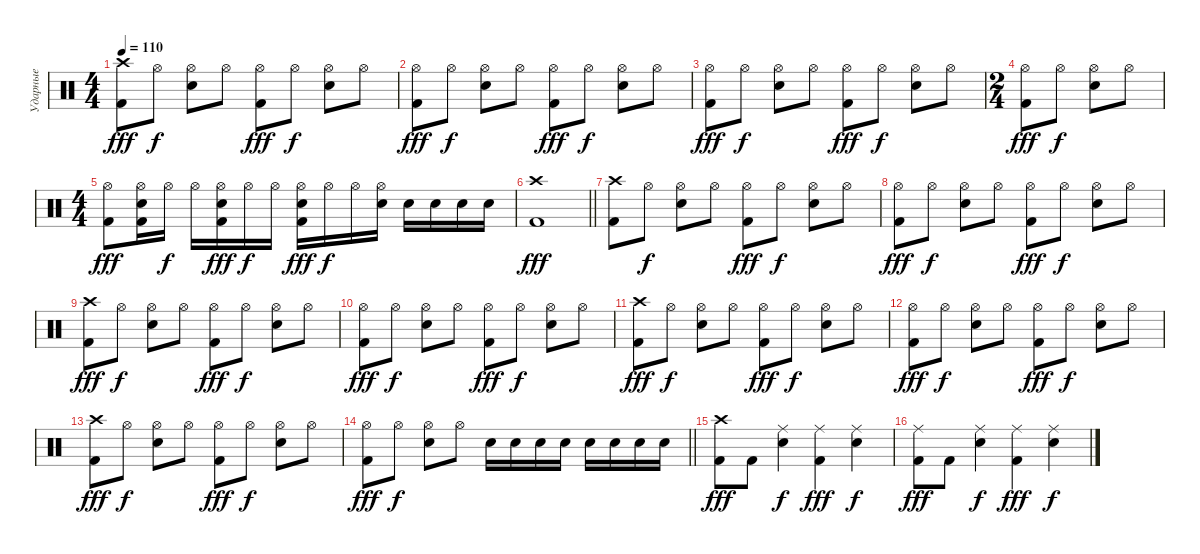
\track ("Ударные" "Ударные") {instrument percussion}
\staff
\articulation defaults
\ts (4 4)
\tempo 110
\clef neutral
\ks c
("Kick (hit) 2" "Crash high (hit)").8{dy fff} "Hi-Hat (open)".8{dy f} ("Snare (hit) 2" "Hi-Hat (open)").8 "Hi-Hat (open)".8 ("Kick (hit) 2" "Hi-Hat (open)").8{dy fff} "Hi-Hat (open)".8{dy f} ("Snare (hit) 2" "Hi-Hat (open)").8 "Hi-Hat (open)".8 |
("Kick (hit) 2" "Hi-Hat (open)").8{dy fff} "Hi-Hat (open)".8{dy f} ("Snare (hit) 2" "Hi-Hat (open)").8 "Hi-Hat (open)".8 ("Kick (hit) 2" "Hi-Hat (open)").8{dy fff} "Hi-Hat (open)".8{dy f} ("Snare (hit) 2" "Hi-Hat (open)").8 "Hi-Hat (open)".8 |
("Kick (hit) 2" "Hi-Hat (open)").8{dy fff} "Hi-Hat (open)".8{dy f} ("Snare (hit) 2" "Hi-Hat (open)").8 "Hi-Hat (open)".8 ("Kick (hit) 2" "Hi-Hat (open)").8{dy fff} "Hi-Hat (open)".8{dy f} ("Snare (hit) 2" "Hi-Hat (open)").8 "Hi-Hat (open)".8 |
\ts (2 4)
("Kick (hit) 2" "Hi-Hat (open)").8{dy fff} "Hi-Hat (open)".8{dy f} ("Snare (hit) 2" "Hi-Hat (open)").8 "Hi-Hat (open)".8 |
\ts (4 4)
("Kick (hit) 2" "Hi-Hat (open)").8{dy fff} ("Kick (hit) 2" "Snare (hit) 2" "Hi-Hat (open)").16 "Hi-Hat (open)".16{dy f} "Hi-Hat (open)".16 ("Kick (hit) 2" "Snare (hit) 2" "Hi-Hat (open)").16{dy fff} "Hi-Hat (open)".16{dy f} "Hi-Hat (open)".16 ("Kick (hit) 2" "Snare (hit) 2" "Hi-Hat (open)").16{dy fff} "Hi-Hat (open)".16{dy f} "Hi-Hat (open)".16 ("Snare (hit) 2" "Hi-Hat (open)").16 "Snare (hit) 2".16 "Snare (hit) 2".16 "Snare (hit) 2".16 "Snare (hit) 2".16 |
\barLineRight lightlight
("Kick (hit) 2" "Crash high (hit)").1{dy fff} |
("Kick (hit) 2" "Crash high (hit)").8 "Hi-Hat (open)".8{dy f} ("Snare (hit) 2" "Hi-Hat (open)").8 "Hi-Hat (open)".8 ("Kick (hit) 2" "Hi-Hat (open)").8{dy fff} "Hi-Hat (open)".8{dy f} ("Snare (hit) 2" "Hi-Hat (open)").8 "Hi-Hat (open)".8 |
("Kick (hit) 2" "Hi-Hat (open)").8{dy fff} "Hi-Hat (open)".8{dy f} ("Snare (hit) 2" "Hi-Hat (open)").8 "Hi-Hat (open)".8 ("Kick (hit) 2" "Hi-Hat (open)").8{dy fff} "Hi-Hat (open)".8{dy f} ("Snare (hit) 2" "Hi-Hat (open)").8 "Hi-Hat (open)".8 |
("Kick (hit) 2" "Crash high (hit)").8{dy fff} "Hi-Hat (open)".8{dy f} ("Snare (hit) 2" "Hi-Hat (open)").8 "Hi-Hat (open)".8 ("Kick (hit) 2" "Hi-Hat (open)").8{dy fff} "Hi-Hat (open)".8{dy f} ("Snare (hit) 2" "Hi-Hat (open)").8 "Hi-Hat (open)".8 |
("Kick (hit) 2" "Hi-Hat (open)").8{dy fff} "Hi-Hat (open)".8{dy f} ("Snare (hit) 2" "Hi-Hat (open)").8 "Hi-Hat (open)".8 ("Kick (hit) 2" "Hi-Hat (open)").8{dy fff} "Hi-Hat (open)".8{dy f} ("Snare (hit) 2" "Hi-Hat (open)").8 "Hi-Hat (open)".8 |
("Kick (hit) 2" "Crash high (hit)").8{dy fff} "Hi-Hat (open)".8{dy f} ("Snare (hit) 2" "Hi-Hat (open)").8 "Hi-Hat (open)".8 ("Kick (hit) 2" "Hi-Hat (open)").8{dy fff} "Hi-Hat (open)".8{dy f} ("Snare (hit) 2" "Hi-Hat (open)").8 "Hi-Hat (open)".8 |
("Kick (hit) 2" "Hi-Hat (open)").8{dy fff} "Hi-Hat (open)".8{dy f} ("Snare (hit) 2" "Hi-Hat (open)").8 "Hi-Hat (open)".8 ("Kick (hit) 2" "Hi-Hat (open)").8{dy fff} "Hi-Hat (open)".8{dy f} ("Snare (hit) 2" "Hi-Hat (open)").8 "Hi-Hat (open)".8 |
("Kick (hit) 2" "Crash high (hit)").8{dy fff} "Hi-Hat (open)".8{dy f} ("Snare (hit) 2" "Hi-Hat (open)").8 "Hi-Hat (open)".8 ("Kick (hit) 2" "Hi-Hat (open)").8{dy fff} "Hi-Hat (open)".8{dy f} ("Snare (hit) 2" "Hi-Hat (open)").8 "Hi-Hat (open)".8 |
\barLineRight lightlight
("Kick (hit) 2" "Hi-Hat (open)").8{dy fff} "Hi-Hat (open)".8{dy f} ("Snare (hit) 2" "Hi-Hat (open)").8 "Hi-Hat (open)".8 "Snare (hit) 2".16 "Snare (hit) 2".16 "Snare (hit) 2".16 "Snare (hit) 2".16 "Snare (hit) 2".16 "Snare (hit) 2".16 "Snare (hit) 2".16 "Snare (hit) 2".16 |
("Kick (hit) 2" "Crash high (hit)").8{dy fff} "Kick (hit) 2".8 ("Snare (hit) 2" "Ride (middle)").4{dy f} ("Kick (hit) 2" "Ride (middle)").4{dy fff} ("Snare (hit) 2" "Ride (middle)").4{dy f} |
("Kick (hit) 2" "Ride (middle)").8{dy fff} "Kick (hit) 2".8 ("Snare (hit) 2" "Ride (middle)").4{dy f} ("Kick (hit) 2" "Ride (middle)").4{dy fff} ("Snare (hit) 2" "Ride (middle)").4{dy f}
